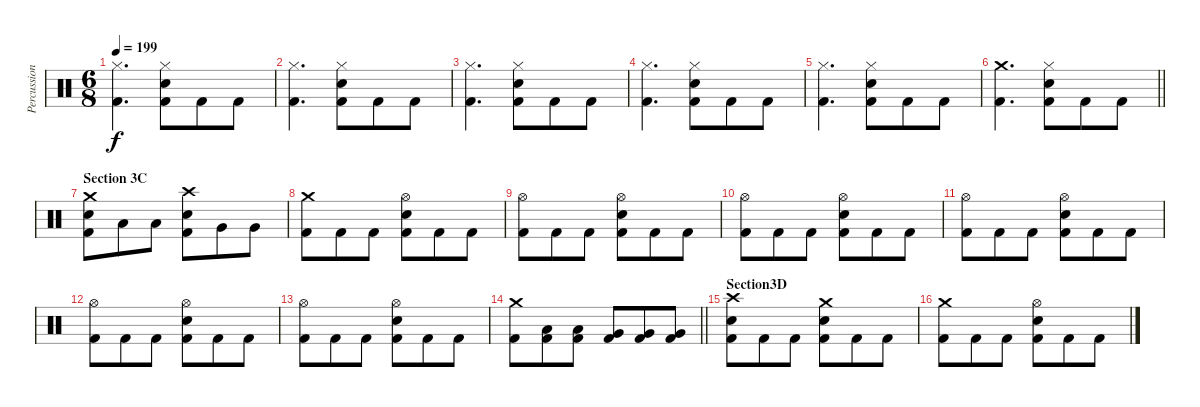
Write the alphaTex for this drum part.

\track ("Percussion" "Percussion") {instrument percussion}
\staff {score}
\articulation defaults
\ts (6 8)
\tempo 199
\clef neutral
\ks c
("Hi-Hat (closed)" "Kick (hit) 2").4{d dy f} ("Hi-Hat (closed)" "Electric Snare (hit)" "Kick (hit) 2").8 "Kick (hit) 2".8 "Kick (hit) 2".8 |
("Hi-Hat (closed)" "Kick (hit) 2").4{d} ("Hi-Hat (closed)" "Electric Snare (hit)" "Kick (hit) 2").8 "Kick (hit) 2".8 "Kick (hit) 2".8 |
("Hi-Hat (closed)" "Kick (hit) 2").4{d} ("Hi-Hat (closed)" "Electric Snare (hit)" "Kick (hit) 2").8 "Kick (hit) 2".8 "Kick (hit) 2".8 |
("Hi-Hat (closed)" "Kick (hit) 2").4{d} ("Hi-Hat (closed)" "Electric Snare (hit)" "Kick (hit) 2").8 "Kick (hit) 2".8 "Kick (hit) 2".8 |
("Hi-Hat (closed)" "Kick (hit) 2").4{d} ("Hi-Hat (closed)" "Electric Snare (hit)" "Kick (hit) 2").8 "Kick (hit) 2".8 "Kick (hit) 2".8 |
\barLineRight lightlight
("Crash medium (hit)" "Kick (hit) 2").4{d} ("Hi-Hat (closed)" "Electric Snare (hit)" "Kick (hit) 2").8 "Kick (hit) 2".8 "Kick (hit) 2".8 |
\section ("" "Section 3C")
("Crash medium (hit)" "Electric Snare (hit)" "Kick (hit) 2").8 "Low Tom (hit)".8 "Low Tom (hit)".8 ("Crash high (hit)" "Electric Snare (hit)" "Kick (hit) 2").8 "Very Low Tom (hit)".8 "Very Low Tom (hit)".8 |
("Crash medium (hit)" "Kick (hit) 2").8 "Kick (hit) 2".8 "Kick (hit) 2".8 ("Electric Snare (hit)" "Hi-Hat (open)" "Kick (hit) 2").8 "Kick (hit) 2".8 "Kick (hit) 2".8 |
("Hi-Hat (open)" "Kick (hit) 2").8 "Kick (hit) 2".8 "Kick (hit) 2".8 ("Electric Snare (hit)" "Hi-Hat (open)" "Kick (hit) 2").8 "Kick (hit) 2".8 "Kick (hit) 2".8 |
("Hi-Hat (open)" "Kick (hit) 2").8 "Kick (hit) 2".8 "Kick (hit) 2".8 ("Electric Snare (hit)" "Hi-Hat (open)" "Kick (hit) 2").8 "Kick (hit) 2".8 "Kick (hit) 2".8 |
("Hi-Hat (open)" "Kick (hit) 2").8 "Kick (hit) 2".8 "Kick (hit) 2".8 ("Electric Snare (hit)" "Hi-Hat (open)" "Kick (hit) 2").8 "Kick (hit) 2".8 "Kick (hit) 2".8 |
("Hi-Hat (open)" "Kick (hit) 2").8 "Kick (hit) 2".8 "Kick (hit) 2".8 ("Electric Snare (hit)" "Hi-Hat (open)" "Kick (hit) 2").8 "Kick (hit) 2".8 "Kick (hit) 2".8 |
("Hi-Hat (open)" "Kick (hit) 2").8 "Kick (hit) 2".8 "Kick (hit) 2".8 ("Electric Snare (hit)" "Hi-Hat (open)" "Kick (hit) 2").8 "Kick (hit) 2".8 "Kick (hit) 2".8 |
\barLineRight lightlight
("Crash medium (hit)" "Kick (hit) 2").8 ("Low Tom (hit)" "Kick (hit) 2").8 ("Low Tom (hit)" "Kick (hit) 2").8 ("Very Low Tom (hit)" "Kick (hit) 2").8 ("Very Low Tom (hit)" "Kick (hit) 2").8 ("Very Low Tom (hit)" "Kick (hit) 2").8 |
\section ("" "Section3D")
("Crash high (hit)" "Electric Snare (hit)" "Kick (hit) 2").8 "Kick (hit) 2".8 "Kick (hit) 2".8 ("Crash medium (hit)" "Electric Snare (hit)" "Kick (hit) 2").8 "Kick (hit) 2".8 "Kick (hit) 2".8 |
("Crash medium (hit)" "Kick (hit) 2").8 "Kick (hit) 2".8 "Kick (hit) 2".8 ("Electric Snare (hit)" "Hi-Hat (open)" "Kick (hit) 2").8 "Kick (hit) 2".8 "Kick (hit) 2".8
